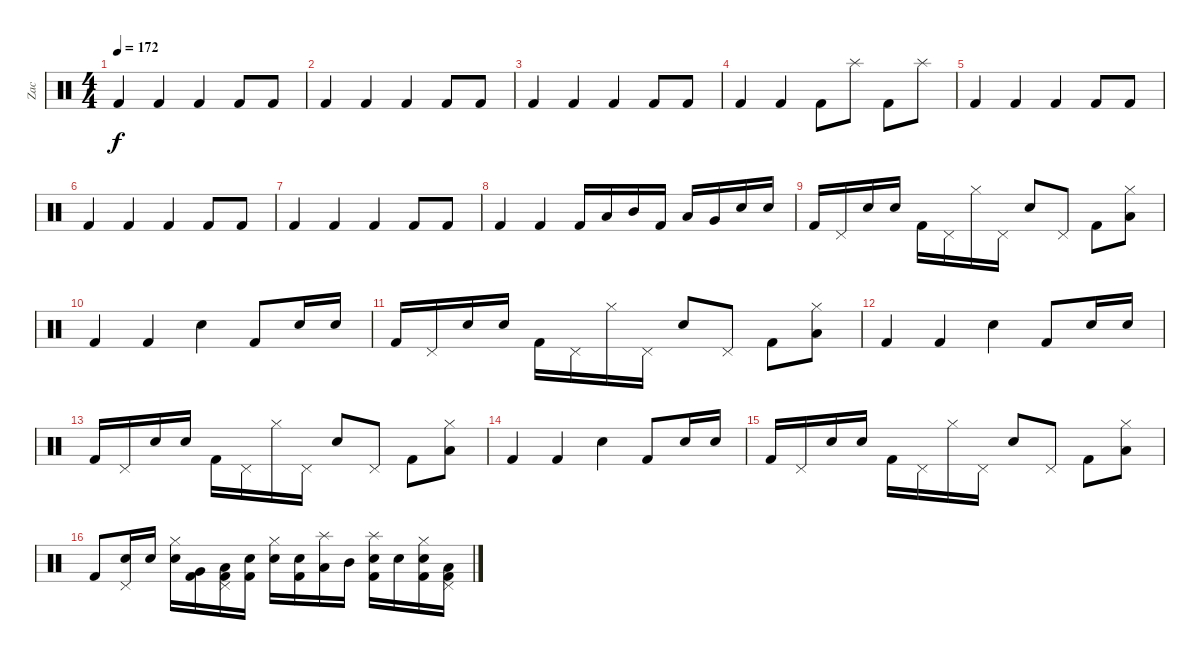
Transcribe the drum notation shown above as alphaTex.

\track ("Zac" "Zac") {instrument percussion}
\staff {score}
\articulation defaults
\ts (4 4)
\tempo 172
\clef neutral
\ks c "Kick (hit) 2".4{dy f} "Kick (hit) 2".4 "Kick (hit) 2".4 "Kick (hit) 2".8 "Kick (hit) 2".8
|
"Kick (hit) 2".4 "Kick (hit) 2".4 "Kick (hit) 2".4 "Kick (hit) 2".8 "Kick (hit) 2".8 |
"Kick (hit) 2".4 "Kick (hit) 2".4 "Kick (hit) 2".4 "Kick (hit) 2".8 "Kick (hit) 2".8 |
"Kick (hit) 2".4 "Kick (hit) 2".4 "Kick (hit) 2".8 "Splash (hit)".8 "Kick (hit) 2".8 "Splash (hit)".8 |
"Kick (hit) 2".4 "Kick (hit) 2".4 "Kick (hit) 2".4 "Kick (hit) 2".8 "Kick (hit) 2".8 |
"Kick (hit) 2".4 "Kick (hit) 2".4 "Kick (hit) 2".4 "Kick (hit) 2".8 "Kick (hit) 2".8 |
"Kick (hit) 2".4 "Kick (hit) 2".4 "Kick (hit) 2".4 "Kick (hit) 2".8 "Kick (hit) 2".8 |
"Kick (hit) 2".4 "Kick (hit) 2".4 "Kick (hit) 2".16 "Low Tom (hit)".16 "Mid Tom (hit)".16 "Kick (hit) 2".16 "Low Floor Tom (hit)".16 "Very Low Tom (hit)".16 "Electric Snare (hit)".16 "Electric Snare (hit)".16 |
"Kick (hit) 2".16 "Pedal Hi-Hat (hit)".16 "Electric Snare (hit)".16 "Electric Snare (hit)".16 "Kick (hit) 2".16 "Pedal Hi-Hat (hit)".16 "Hi-Hat (closed)".16 "Pedal Hi-Hat (hit)".16 "Electric Snare (hit)".8 "Pedal Hi-Hat (hit)".8 "Kick (hit) 2".8 ("Hi-Hat (closed)" "Low Tom (hit)").8 |
"Kick (hit) 2".4 "Kick (hit) 2".4 "Electric Snare (hit)".4 "Kick (hit) 2".8 "Electric Snare (hit)".16 "Electric Snare (hit)".16 |
"Kick (hit) 2".16 "Pedal Hi-Hat (hit)".16 "Electric Snare (hit)".16 "Electric Snare (hit)".16 "Kick (hit) 2".16 "Pedal Hi-Hat (hit)".16 "Hi-Hat (closed)".16 "Pedal Hi-Hat (hit)".16 "Electric Snare (hit)".8 "Pedal Hi-Hat (hit)".8 "Kick (hit) 2".8 ("Hi-Hat (closed)" "Low Tom (hit)").8 |
"Kick (hit) 2".4 "Kick (hit) 2".4 "Electric Snare (hit)".4 "Kick (hit) 2".8 "Electric Snare (hit)".16 "Electric Snare (hit)".16 |
"Kick (hit) 2".16 "Pedal Hi-Hat (hit)".16 "Electric Snare (hit)".16 "Electric Snare (hit)".16 "Kick (hit) 2".16 "Pedal Hi-Hat (hit)".16 "Hi-Hat (closed)".16 "Pedal Hi-Hat (hit)".16 "Electric Snare (hit)".8 "Pedal Hi-Hat (hit)".8 "Kick (hit) 2".8 ("Hi-Hat (closed)" "Low Tom (hit)").8 |
"Kick (hit) 2".4 "Kick (hit) 2".4 "Electric Snare (hit)".4 "Kick (hit) 2".8 "Electric Snare (hit)".16 "Electric Snare (hit)".16 |
"Kick (hit) 2".16 "Pedal Hi-Hat (hit)".16 "Electric Snare (hit)".16 "Electric Snare (hit)".16 "Kick (hit) 2".16 "Pedal Hi-Hat (hit)".16 "Hi-Hat (closed)".16 "Pedal Hi-Hat (hit)".16 "Electric Snare (hit)".8 "Pedal Hi-Hat (hit)".8 "Kick (hit) 2".8 ("Hi-Hat (closed)" "Low Tom (hit)").8 |
"Kick (hit) 2".8 ("Pedal Hi-Hat (hit)" "Electric Snare (hit)").16 "Electric Snare (hit)".16 ("Hi-Hat (closed)" "Electric Snare (hit)").16 ("Very Low Tom (hit)" "Kick (hit) 2").16 ("Pedal Hi-Hat (hit)" "Low Tom (hit)" "Kick (hit) 2").16 ("Electric Snare (hit)" "Kick (hit) 2").16 ("Hi-Hat (closed)" "Electric Snare (hit)").16 ("Electric Snare (hit)" "Kick (hit) 2").16 ("Splash (hit)" "Low Tom (hit)").16 "Mid Tom (hit)".16 ("Splash (hit)" "Electric Snare (hit)" "Kick (hit) 2").16 "Electric Snare (hit)".16 ("Hi-Hat (closed)" "Electric Snare (hit)" "Kick (hit) 2").16 ("Pedal Hi-Hat (hit)" "Low Tom (hit)" "Kick (hit) 2").16
